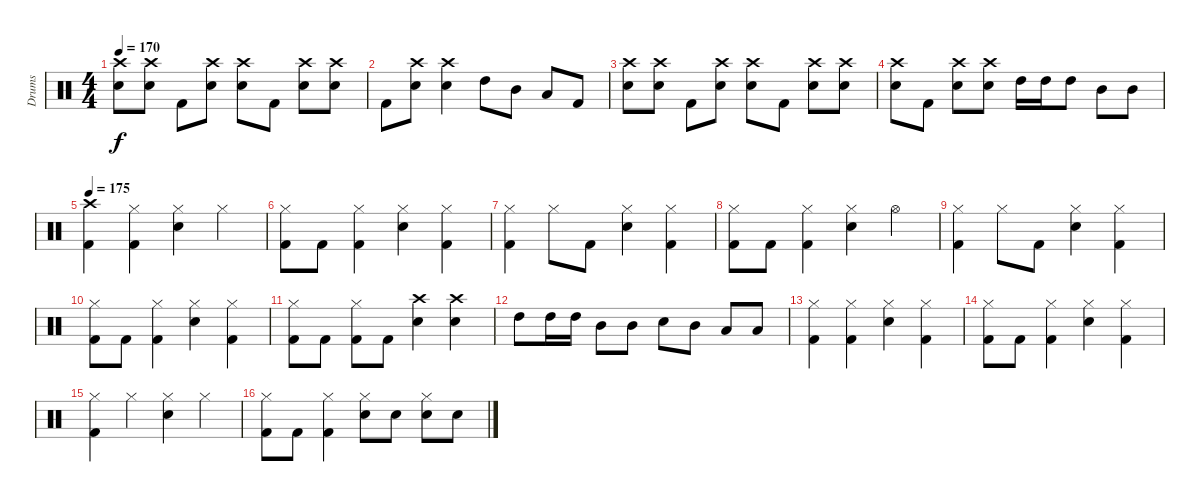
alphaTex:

\track ("Drums" "Drums") {instrument percussion}
\staff {score}
\articulation defaults
\ts (4 4)
\tempo 170
\clef neutral
\ks c
("Crash high (hit)" "Electric Snare (hit)").8{dy f} ("Crash high (hit)" "Electric Snare (hit)").8 "Kick (hit) 2".8 ("Crash high (hit)" "Electric Snare (hit)").8 ("Crash high (hit)" "Electric Snare (hit)").8 "Kick (hit) 2".8 ("Crash high (hit)" "Electric Snare (hit)").8 ("Crash high (hit)" "Electric Snare (hit)").8 |
"Kick (hit) 2".8 ("Crash high (hit)" "Electric Snare (hit)").8 ("Crash high (hit)" "Electric Snare (hit)").4 "High Tom (hit)".8 "Mid Tom (hit)".8 "Low Tom (hit)".8 "Kick (hit) 2".8 |
("Crash high (hit)" "Electric Snare (hit)").8 ("Crash high (hit)" "Electric Snare (hit)").8 "Kick (hit) 2".8 ("Crash high (hit)" "Electric Snare (hit)").8 ("Crash high (hit)" "Electric Snare (hit)").8 "Kick (hit) 2".8 ("Crash high (hit)" "Electric Snare (hit)").8 ("Crash high (hit)" "Electric Snare (hit)").8 |
("Crash high (hit)" "Electric Snare (hit)").8 "Kick (hit) 2".8 ("Crash high (hit)" "Electric Snare (hit)").8 ("Crash high (hit)" "Electric Snare (hit)").8 "High Tom (hit)".16 "High Tom (hit)".16 "High Tom (hit)".8 "Mid Tom (hit)".8 "Mid Tom (hit)".8 |
\tempo 175
("Crash high (hit)" "Kick (hit) 2").4 ("Hi-Hat (closed)" "Kick (hit) 2").4 ("Hi-Hat (closed)" "Electric Snare (hit)").4 "Hi-Hat (closed)".4 |
("Hi-Hat (closed)" "Kick (hit) 2").8 "Kick (hit) 2".8 ("Hi-Hat (closed)" "Kick (hit) 2").4 ("Hi-Hat (closed)" "Electric Snare (hit)").4 ("Hi-Hat (closed)" "Kick (hit) 2").4 |
("Hi-Hat (closed)" "Kick (hit) 2").4 "Hi-Hat (closed)".8 "Kick (hit) 2".8 ("Hi-Hat (closed)" "Electric Snare (hit)").4 ("Hi-Hat (closed)" "Kick (hit) 2").4 |
("Hi-Hat (closed)" "Kick (hit) 2").8 "Kick (hit) 2".8 ("Hi-Hat (closed)" "Kick (hit) 2").4 ("Hi-Hat (closed)" "Electric Snare (hit)").4 "Hi-Hat (open)".4 |
("Hi-Hat (closed)" "Kick (hit) 2").4 "Hi-Hat (closed)".8 "Kick (hit) 2".8 ("Hi-Hat (closed)" "Electric Snare (hit)").4 ("Hi-Hat (closed)" "Kick (hit) 2").4 |
("Hi-Hat (closed)" "Kick (hit) 2").8 "Kick (hit) 2".8 ("Hi-Hat (closed)" "Kick (hit) 2").4 ("Hi-Hat (closed)" "Electric Snare (hit)").4 ("Hi-Hat (closed)" "Kick (hit) 2").4 |
("Hi-Hat (closed)" "Kick (hit) 2").8 "Kick (hit) 2".8 ("Hi-Hat (closed)" "Kick (hit) 2").8 "Kick (hit) 2".8 ("Crash high (hit)" "Electric Snare (hit)").4 ("Crash high (hit)" "Electric Snare (hit)").4 |
"High Tom (hit)".8 "High Tom (hit)".16 "High Tom (hit)".16 "Mid Tom (hit)".8 "Mid Tom (hit)".8 "Electric Snare (hit)".8 "Mid Tom (hit)".8 "Low Tom (hit)".8 "Low Tom (hit)".8 |
("Hi-Hat (closed)" "Kick (hit) 2").4 ("Hi-Hat (closed)" "Kick (hit) 2").4 ("Hi-Hat (closed)" "Electric Snare (hit)").4 ("Hi-Hat (closed)" "Kick (hit) 2").4 |
("Hi-Hat (closed)" "Kick (hit) 2").8 "Kick (hit) 2".8 ("Hi-Hat (closed)" "Kick (hit) 2").4 ("Hi-Hat (closed)" "Electric Snare (hit)").4 ("Hi-Hat (closed)" "Kick (hit) 2").4 |
("Hi-Hat (closed)" "Kick (hit) 2").4 "Hi-Hat (closed)".4 ("Hi-Hat (closed)" "Electric Snare (hit)").4 "Hi-Hat (closed)".4 |
("Hi-Hat (closed)" "Kick (hit) 2").8 "Kick (hit) 2".8 ("Hi-Hat (closed)" "Kick (hit) 2").4 ("Hi-Hat (closed)" "Electric Snare (hit)").8 "Electric Snare (hit)".8 ("Hi-Hat (closed)" "Electric Snare (hit)").8 "Electric Snare (hit)".8
